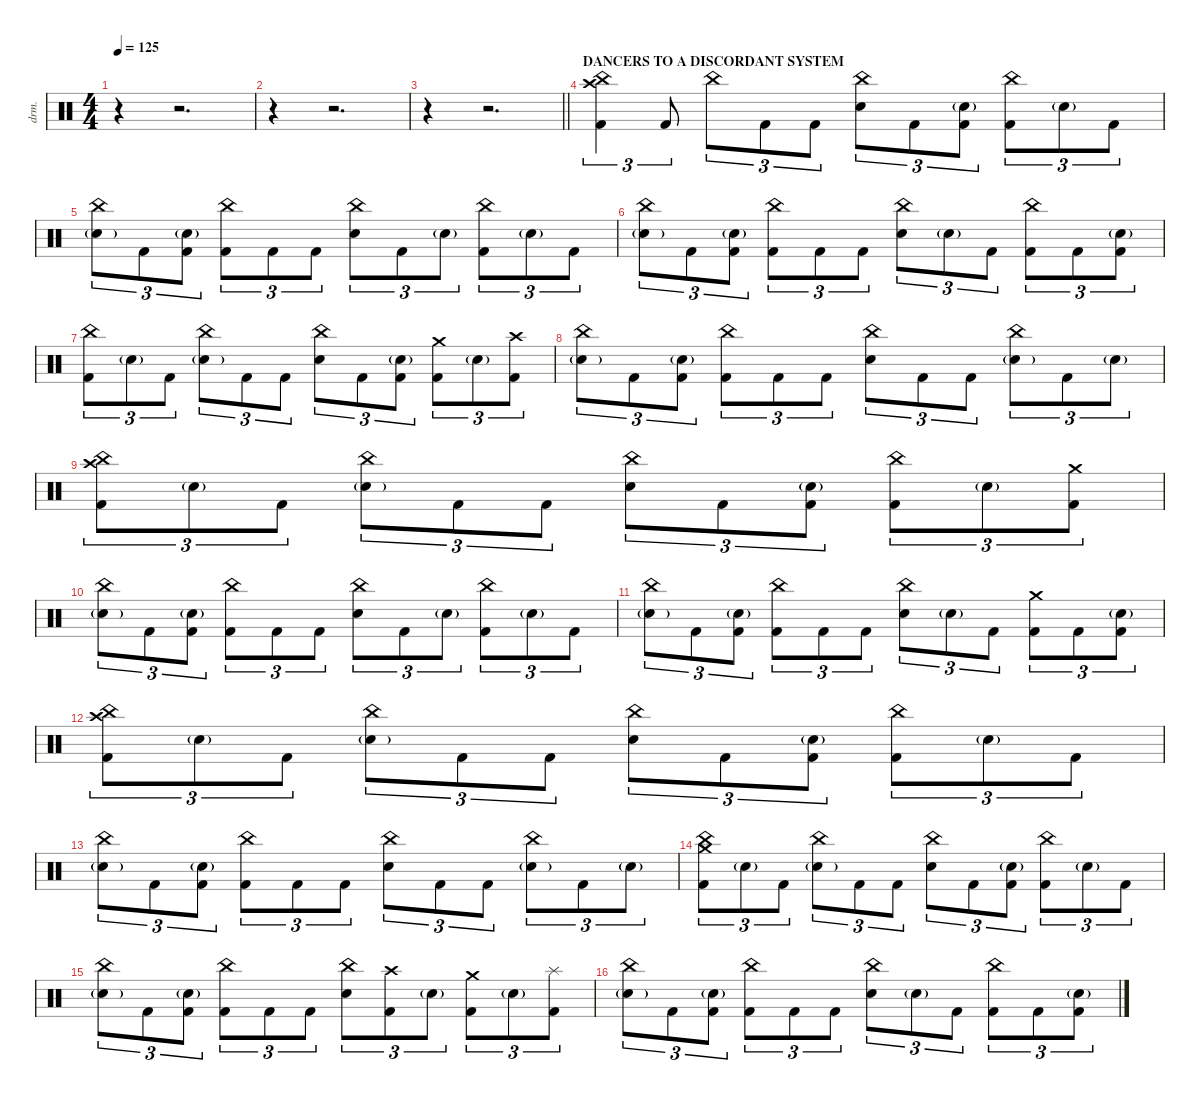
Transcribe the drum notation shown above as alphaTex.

\defaultSystemsLayout 4
\hideDynamics
\bracketExtendMode nobrackets
\track ("DRUMS (Thomas Haake)" "drm.") {instrument percussion}
\staff {score}
\articulation defaults
\ts (4 4)
\tempo 125
\clef neutral
\ks c
r.4{dy f} r.2{d} |
r.4 r.2{d} |
\barLineRight lightlight
r.4 r.2{d} |
\section ("" "DANCERS TO A DISCORDANT SYSTEM")
("China (hit)" "Crash high (hit)" "Kick (hit) 2").4{tu (3 2)} "Kick (hit) 2".8{tu (3 2)} "China (hit)".8{tu (3 2)} "Kick (hit) 2".8{tu (3 2)} "Kick (hit) 2".8{tu (3 2)} ("China (hit)" "Snare (hit) 2").8{tu (3 2)} "Kick (hit) 2".8{tu (3 2)} ("Snare (hit) 2"{g} "Kick (hit) 2").8{tu (3 2)} ("China (hit)" "Kick (hit) 2").8{tu (3 2)} "Snare (hit) 2"{g}.8{tu (3 2) dy p} "Kick (hit) 2".8{tu (3 2) dy f} |
("China (hit)" "Snare (hit) 2"{g}).8{tu (3 2)} "Kick (hit) 2".8{tu (3 2)} ("Snare (hit) 2"{g} "Kick (hit) 2").8{tu (3 2)} ("China (hit)" "Kick (hit) 2").8{tu (3 2)} "Kick (hit) 2".8{tu (3 2)} "Kick (hit) 2".8{tu (3 2)} ("China (hit)" "Snare (hit) 2").8{tu (3 2)} "Kick (hit) 2".8{tu (3 2)} "Snare (hit) 2"{g}.8{tu (3 2) dy p} ("China (hit)" "Kick (hit) 2").8{tu (3 2) dy f} "Snare (hit) 2"{g}.8{tu (3 2) dy p} "Kick (hit) 2".8{tu (3 2) dy f} |
("China (hit)" "Snare (hit) 2"{g}).8{tu (3 2)} "Kick (hit) 2".8{tu (3 2)} ("Snare (hit) 2"{g} "Kick (hit) 2").8{tu (3 2)} ("China (hit)" "Kick (hit) 2").8{tu (3 2)} "Kick (hit) 2".8{tu (3 2)} "Kick (hit) 2".8{tu (3 2)} ("China (hit)" "Snare (hit) 2").8{tu (3 2)} "Snare (hit) 2"{g}.8{tu (3 2) dy p} "Kick (hit) 2".8{tu (3 2) dy f} ("China (hit)" "Kick (hit) 2").8{tu (3 2)} "Kick (hit) 2".8{tu (3 2)} ("Snare (hit) 2"{g} "Kick (hit) 2").8{tu (3 2)} |
("China (hit)" "Kick (hit) 2").8{tu (3 2)} "Snare (hit) 2"{g}.8{tu (3 2) dy p} "Kick (hit) 2".8{tu (3 2) dy f} ("China (hit)" "Snare (hit) 2"{g}).8{tu (3 2)} "Kick (hit) 2".8{tu (3 2)} "Kick (hit) 2".8{tu (3 2)} ("China (hit)" "Snare (hit) 2").8{tu (3 2)} "Kick (hit) 2".8{tu (3 2)} ("Snare (hit) 2"{g} "Kick (hit) 2").8{tu (3 2)} ("Crash medium (hit)" "Kick (hit) 2").8{tu (3 2)} "Snare (hit) 2"{g}.8{tu (3 2) dy p} ("Crash high (hit)" "Kick (hit) 2").8{tu (3 2) dy f} |
("China (hit)" "Snare (hit) 2"{g}).8{tu (3 2)} "Kick (hit) 2".8{tu (3 2)} ("Snare (hit) 2"{g} "Kick (hit) 2").8{tu (3 2)} ("China (hit)" "Kick (hit) 2").8{tu (3 2)} "Kick (hit) 2".8{tu (3 2)} "Kick (hit) 2".8{tu (3 2)} ("China (hit)" "Snare (hit) 2").8{tu (3 2)} "Kick (hit) 2".8{tu (3 2)} "Kick (hit) 2".8{tu (3 2)} ("China (hit)" "Snare (hit) 2"{g}).8{tu (3 2)} "Kick (hit) 2".8{tu (3 2)} "Snare (hit) 2"{g}.8{tu (3 2) dy p} |
("China (hit)" "Crash high (hit)" "Kick (hit) 2").8{tu (3 2) dy f} "Snare (hit) 2"{g}.8{tu (3 2) dy p} "Kick (hit) 2".8{tu (3 2) dy f} ("China (hit)" "Snare (hit) 2"{g}).8{tu (3 2)} "Kick (hit) 2".8{tu (3 2)} "Kick (hit) 2".8{tu (3 2)} ("China (hit)" "Snare (hit) 2").8{tu (3 2)} "Kick (hit) 2".8{tu (3 2)} ("Snare (hit) 2"{g} "Kick (hit) 2").8{tu (3 2)} ("China (hit)" "Kick (hit) 2").8{tu (3 2)} "Snare (hit) 2"{g}.8{tu (3 2) dy p} ("Crash medium (hit)" "Kick (hit) 2").8{tu (3 2) dy f} |
("China (hit)" "Snare (hit) 2"{g}).8{tu (3 2)} "Kick (hit) 2".8{tu (3 2)} ("Snare (hit) 2"{g} "Kick (hit) 2").8{tu (3 2)} ("China (hit)" "Kick (hit) 2").8{tu (3 2)} "Kick (hit) 2".8{tu (3 2)} "Kick (hit) 2".8{tu (3 2)} ("China (hit)" "Snare (hit) 2").8{tu (3 2)} "Kick (hit) 2".8{tu (3 2)} "Snare (hit) 2"{g}.8{tu (3 2) dy p} ("China (hit)" "Kick (hit) 2").8{tu (3 2) dy f} "Snare (hit) 2"{g}.8{tu (3 2) dy p} "Kick (hit) 2".8{tu (3 2) dy f} |
("China (hit)" "Snare (hit) 2"{g}).8{tu (3 2)} "Kick (hit) 2".8{tu (3 2)} ("Snare (hit) 2"{g} "Kick (hit) 2").8{tu (3 2)} ("China (hit)" "Kick (hit) 2").8{tu (3 2)} "Kick (hit) 2".8{tu (3 2)} "Kick (hit) 2".8{tu (3 2)} ("China (hit)" "Snare (hit) 2").8{tu (3 2)} "Snare (hit) 2"{g}.8{tu (3 2) dy p} "Kick (hit) 2".8{tu (3 2) dy f} ("Crash medium (hit)" "Kick (hit) 2").8{tu (3 2)} "Kick (hit) 2".8{tu (3 2)} ("Snare (hit) 2"{g} "Kick (hit) 2").8{tu (3 2)} |
("China (hit)" "Crash high (hit)" "Kick (hit) 2").8{tu (3 2) dy mf} "Snare (hit) 2"{g}.8{tu (3 2) dy p} "Kick (hit) 2".8{tu (3 2) dy f} ("China (hit)" "Snare (hit) 2"{g}).8{tu (3 2)} "Kick (hit) 2".8{tu (3 2)} "Kick (hit) 2".8{tu (3 2)} ("China (hit)" "Snare (hit) 2").8{tu (3 2)} "Kick (hit) 2".8{tu (3 2)} ("Snare (hit) 2"{g} "Kick (hit) 2").8{tu (3 2)} ("China (hit)" "Kick (hit) 2").8{tu (3 2)} "Snare (hit) 2"{g}.8{tu (3 2) dy p} "Kick (hit) 2".8{tu (3 2) dy f} |
("China (hit)" "Snare (hit) 2"{g}).8{tu (3 2)} "Kick (hit) 2".8{tu (3 2)} ("Snare (hit) 2"{g} "Kick (hit) 2").8{tu (3 2)} ("China (hit)" "Kick (hit) 2").8{tu (3 2)} "Kick (hit) 2".8{tu (3 2)} "Kick (hit) 2".8{tu (3 2)} ("China (hit)" "Snare (hit) 2").8{tu (3 2)} "Kick (hit) 2".8{tu (3 2)} "Kick (hit) 2".8{tu (3 2)} ("China (hit)" "Snare (hit) 2"{g}).8{tu (3 2)} "Kick (hit) 2".8{tu (3 2)} "Snare (hit) 2"{g}.8{tu (3 2) dy p} |
("China (hit)" "Crash medium (hit)" "Kick (hit) 2").8{tu (3 2) dy f} "Snare (hit) 2"{g}.8{tu (3 2) dy p} "Kick (hit) 2".8{tu (3 2) dy f} ("China (hit)" "Snare (hit) 2"{g}).8{tu (3 2)} "Kick (hit) 2".8{tu (3 2)} "Kick (hit) 2".8{tu (3 2)} ("China (hit)" "Snare (hit) 2").8{tu (3 2)} "Kick (hit) 2".8{tu (3 2)} ("Snare (hit) 2"{g} "Kick (hit) 2").8{tu (3 2)} ("China (hit)" "Kick (hit) 2").8{tu (3 2)} "Snare (hit) 2"{g}.8{tu (3 2) dy p} "Kick (hit) 2".8{tu (3 2) dy f} |
("China (hit)" "Snare (hit) 2"{g}).8{tu (3 2)} "Kick (hit) 2".8{tu (3 2)} ("Snare (hit) 2"{g} "Kick (hit) 2").8{tu (3 2)} ("China (hit)" "Kick (hit) 2").8{tu (3 2)} "Kick (hit) 2".8{tu (3 2)} "Kick (hit) 2".8{tu (3 2)} ("China (hit)" "Snare (hit) 2").8{tu (3 2)} ("Crash high (hit)" "Kick (hit) 2").8{tu (3 2)} "Snare (hit) 2"{g}.8{tu (3 2) dy p} ("Crash medium (hit)" "Kick (hit) 2").8{tu (3 2) dy f} "Snare (hit) 2"{g}.8{tu (3 2) dy p} ("Splash (hit)" "Kick (hit) 2").8{tu (3 2) dy f} |
("China (hit)" "Snare (hit) 2"{g}).8{tu (3 2)} "Kick (hit) 2".8{tu (3 2)} ("Snare (hit) 2"{g} "Kick (hit) 2").8{tu (3 2)} ("China (hit)" "Kick (hit) 2").8{tu (3 2)} "Kick (hit) 2".8{tu (3 2)} "Kick (hit) 2".8{tu (3 2)} ("China (hit)" "Snare (hit) 2").8{tu (3 2)} "Snare (hit) 2"{g}.8{tu (3 2) dy p} "Kick (hit) 2".8{tu (3 2) dy f} ("China (hit)" "Kick (hit) 2").8{tu (3 2)} "Kick (hit) 2".8{tu (3 2)} ("Snare (hit) 2"{g} "Kick (hit) 2").8{tu (3 2)}
